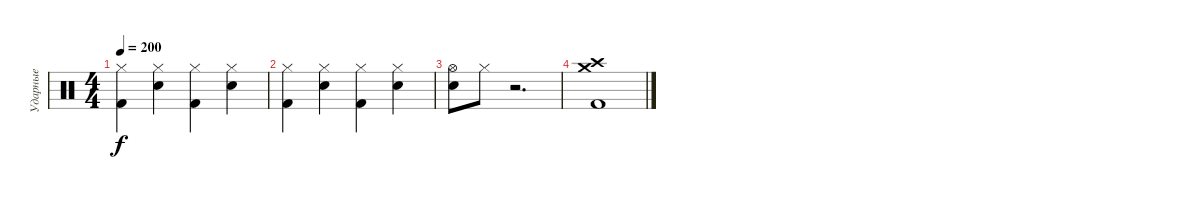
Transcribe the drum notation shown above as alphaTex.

\track ("Ударные" "Ударные") {instrument percussion}
\staff {score}
\articulation defaults
\ts (4 4)
\tempo 200
\clef neutral
\ks c
("Hi-Hat (closed)" "Kick (hit) 2").4{dy f} ("Hi-Hat (closed)" "Electric Snare (hit)").4 ("Hi-Hat (closed)" "Kick (hit) 2").4 ("Hi-Hat (closed)" "Electric Snare (hit)").4 |
("Hi-Hat (closed)" "Kick (hit) 2").4 ("Hi-Hat (closed)" "Electric Snare (hit)").4 ("Hi-Hat (closed)" "Kick (hit) 2").4 ("Hi-Hat (closed)" "Electric Snare (hit)").4 |
("Hi-Hat (open)" "Electric Snare (hit)").8 "Hi-Hat (closed)".8 r.2{d} |
("Crash medium (hit)" "Crash high (hit)" "Kick (hit) 2").1
